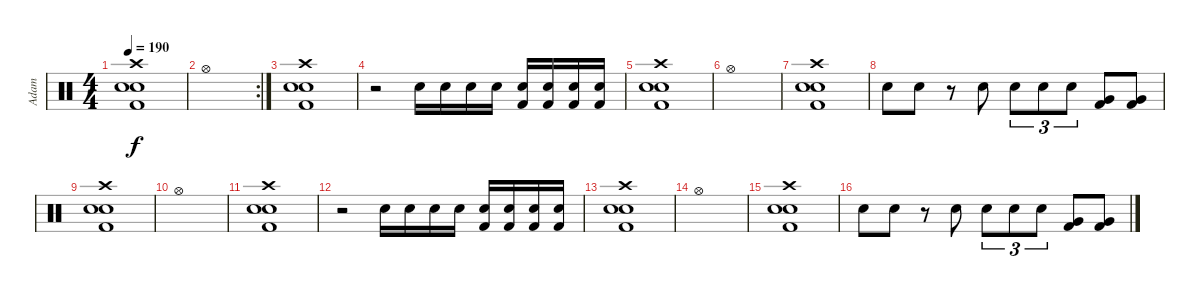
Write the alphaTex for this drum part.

\track ("Adam" "Adam") {instrument percussion}
\staff {score}
\articulation defaults
\ts (4 4)
\tempo 190
\clef neutral
\ks c
("Crash high (hit)" "Electric Snare (hit)" "Snare (hit) 2" "Kick (hit) 2").1{dy f} |
\rc 2 "Hi-Hat (open)".1
|
("Crash high (hit)" "Electric Snare (hit)" "Snare (hit) 2" "Kick (hit) 2").1 |
r.2 "Electric Snare (hit)".16 "Electric Snare (hit)".16 "Electric Snare (hit)".16 "Electric Snare (hit)".16 ("Snare (hit) 2" "Kick (hit) 2").16 ("Snare (hit) 2" "Kick (hit) 2").16 ("Snare (hit) 2" "Kick (hit) 2").16 ("Snare (hit) 2" "Kick (hit) 2").16 |
("Crash high (hit)" "Electric Snare (hit)" "Snare (hit) 2" "Kick (hit) 2").1 |
"Hi-Hat (open)".1{volume 10} |
("Crash high (hit)" "Electric Snare (hit)" "Snare (hit) 2" "Kick (hit) 2").1{volume 9} |
"Electric Snare (hit)".8{volume 8} "Electric Snare (hit)".8 r.8 "Electric Snare (hit)".8 "Snare (hit) 2".8{tu (3 2)} "Snare (hit) 2".8{tu (3 2)} "Snare (hit) 2".8{tu (3 2)} ("Very Low Tom (hit)" "Kick (hit) 2").8 ("Very Low Tom (hit)" "Kick (hit) 2").8 |
("Crash high (hit)" "Electric Snare (hit)" "Snare (hit) 2" "Kick (hit) 2").1{volume 6} |
"Hi-Hat (open)".1{volume 6} |
("Crash high (hit)" "Electric Snare (hit)" "Snare (hit) 2" "Kick (hit) 2").1{volume 5} |
r.2{volume 4} "Electric Snare (hit)".16 "Electric Snare (hit)".16 "Electric Snare (hit)".16 "Electric Snare (hit)".16 ("Snare (hit) 2" "Kick (hit) 2").16 ("Snare (hit) 2" "Kick (hit) 2").16 ("Snare (hit) 2" "Kick (hit) 2").16 ("Snare (hit) 2" "Kick (hit) 2").16 |
("Crash high (hit)" "Electric Snare (hit)" "Snare (hit) 2" "Kick (hit) 2").1{volume 3} |
"Hi-Hat (open)".1{volume 2} |
("Crash high (hit)" "Electric Snare (hit)" "Snare (hit) 2" "Kick (hit) 2").1{volume 2} |
"Electric Snare (hit)".8{volume 2} "Electric Snare (hit)".8 r.8 "Electric Snare (hit)".8 "Snare (hit) 2".8{tu (3 2)} "Snare (hit) 2".8{tu (3 2)} "Snare (hit) 2".8{tu (3 2) volume 1} ("Very Low Tom (hit)" "Kick (hit) 2").8 ("Very Low Tom (hit)" "Kick (hit) 2").8
